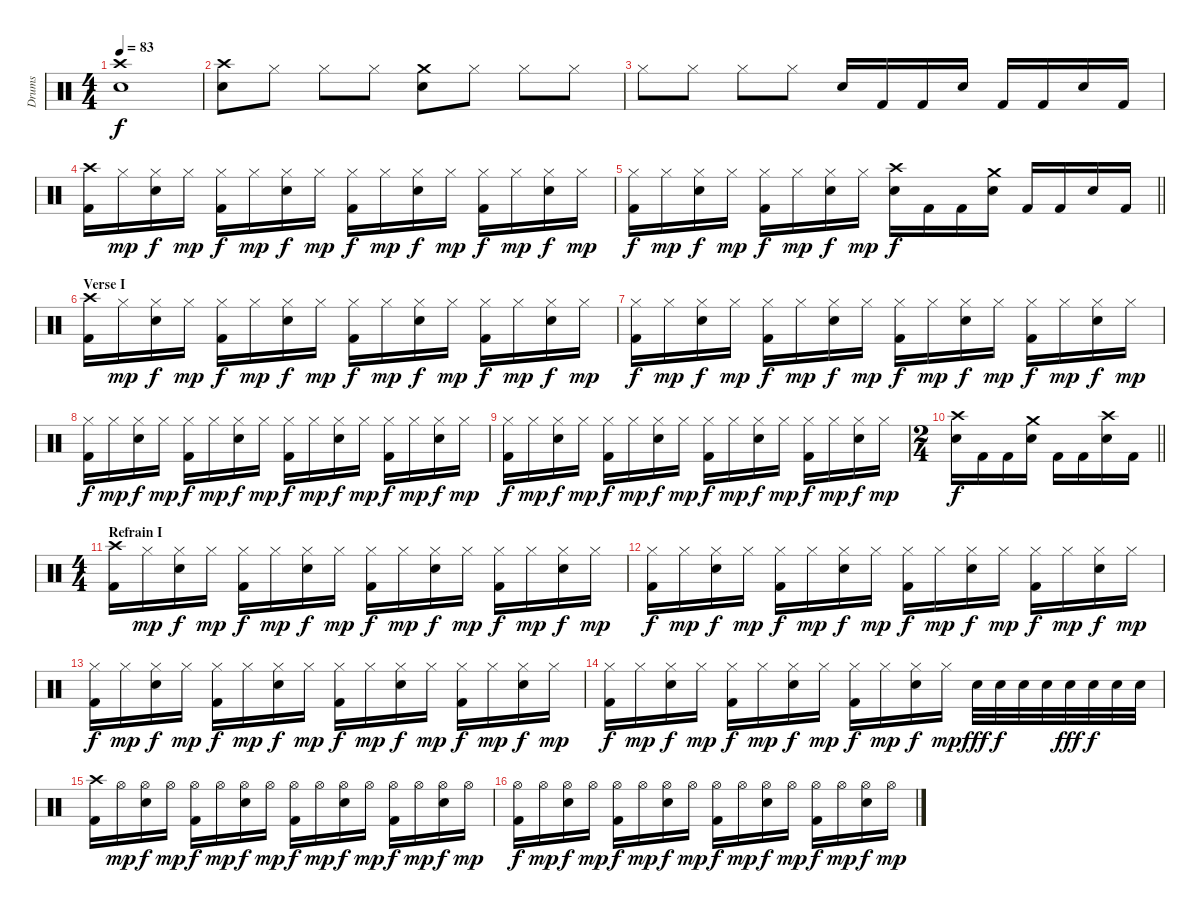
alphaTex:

\track ("Drums" "Drums") {instrument percussion}
\staff {score}
\articulation defaults
\ts (4 4)
\tempo 83
\clef neutral
\ks c
("Crash high (hit)" "Snare (hit) 2").1{dy f} |
("Crash high (hit)" "Snare (hit) 2").8 "Hi-Hat (closed)".8 "Hi-Hat (closed)".8 "Hi-Hat (closed)".8 ("Crash medium (hit)" "Snare (hit) 2").8 "Hi-Hat (closed)".8 "Hi-Hat (closed)".8 "Hi-Hat (closed)".8 |
"Hi-Hat (closed)".8 "Hi-Hat (closed)".8 "Hi-Hat (closed)".8 "Hi-Hat (closed)".8 "Snare (hit) 2".16 "Kick (hit) 2".16 "Kick (hit) 2".16 "Snare (hit) 2".16 "Kick (hit) 2".16 "Kick (hit) 2".16 "Snare (hit) 2".16 "Kick (hit) 2".16 |
("Crash high (hit)" "Kick (hit) 2").16 "Hi-Hat (closed)".16{dy mp} ("Hi-Hat (closed)" "Snare (hit) 2").16{dy f} "Hi-Hat (closed)".16{dy mp} ("Hi-Hat (closed)" "Kick (hit) 2").16{dy f} "Hi-Hat (closed)".16{dy mp} ("Hi-Hat (closed)" "Snare (hit) 2").16{dy f} "Hi-Hat (closed)".16{dy mp} ("Hi-Hat (closed)" "Kick (hit) 2").16{dy f} "Hi-Hat (closed)".16{dy mp} ("Hi-Hat (closed)" "Snare (hit) 2").16{dy f} "Hi-Hat (closed)".16{dy mp} ("Hi-Hat (closed)" "Kick (hit) 2").16{dy f} "Hi-Hat (closed)".16{dy mp} ("Hi-Hat (closed)" "Snare (hit) 2").16{dy f} "Hi-Hat (closed)".16{dy mp} |
\barLineRight lightlight
("Hi-Hat (closed)" "Kick (hit) 2").16{dy f} "Hi-Hat (closed)".16{dy mp} ("Hi-Hat (closed)" "Snare (hit) 2").16{dy f} "Hi-Hat (closed)".16{dy mp} ("Hi-Hat (closed)" "Kick (hit) 2").16{dy f} "Hi-Hat (closed)".16{dy mp} ("Hi-Hat (closed)" "Snare (hit) 2").16{dy f} "Hi-Hat (closed)".16{dy mp} ("Crash high (hit)" "Snare (hit) 2").16{dy f} "Kick (hit) 2".16 "Kick (hit) 2".16 ("Crash medium (hit)" "Snare (hit) 2").16 "Kick (hit) 2".16 "Kick (hit) 2".16 "Snare (hit) 2".16 "Kick (hit) 2".16 |
\section ("" "Verse I")
("Crash high (hit)" "Kick (hit) 2").16 "Hi-Hat (closed)".16{dy mp} ("Hi-Hat (closed)" "Snare (hit) 2").16{dy f} "Hi-Hat (closed)".16{dy mp} ("Hi-Hat (closed)" "Kick (hit) 2").16{dy f} "Hi-Hat (closed)".16{dy mp} ("Hi-Hat (closed)" "Snare (hit) 2").16{dy f} "Hi-Hat (closed)".16{dy mp} ("Hi-Hat (closed)" "Kick (hit) 2").16{dy f} "Hi-Hat (closed)".16{dy mp} ("Hi-Hat (closed)" "Snare (hit) 2").16{dy f} "Hi-Hat (closed)".16{dy mp} ("Hi-Hat (closed)" "Kick (hit) 2").16{dy f} "Hi-Hat (closed)".16{dy mp} ("Hi-Hat (closed)" "Snare (hit) 2").16{dy f} "Hi-Hat (closed)".16{dy mp} |
("Hi-Hat (closed)" "Kick (hit) 2").16{dy f} "Hi-Hat (closed)".16{dy mp} ("Hi-Hat (closed)" "Snare (hit) 2").16{dy f} "Hi-Hat (closed)".16{dy mp} ("Hi-Hat (closed)" "Kick (hit) 2").16{dy f} "Hi-Hat (closed)".16{dy mp} ("Hi-Hat (closed)" "Snare (hit) 2").16{dy f} "Hi-Hat (closed)".16{dy mp} ("Hi-Hat (closed)" "Kick (hit) 2").16{dy f} "Hi-Hat (closed)".16{dy mp} ("Hi-Hat (closed)" "Snare (hit) 2").16{dy f} "Hi-Hat (closed)".16{dy mp} ("Hi-Hat (closed)" "Kick (hit) 2").16{dy f} "Hi-Hat (closed)".16{dy mp} ("Hi-Hat (closed)" "Snare (hit) 2").16{dy f} "Hi-Hat (closed)".16{dy mp} |
("Hi-Hat (closed)" "Kick (hit) 2").16{dy f} "Hi-Hat (closed)".16{dy mp} ("Hi-Hat (closed)" "Snare (hit) 2").16{dy f} "Hi-Hat (closed)".16{dy mp} ("Hi-Hat (closed)" "Kick (hit) 2").16{dy f} "Hi-Hat (closed)".16{dy mp} ("Hi-Hat (closed)" "Snare (hit) 2").16{dy f} "Hi-Hat (closed)".16{dy mp} ("Hi-Hat (closed)" "Kick (hit) 2").16{dy f} "Hi-Hat (closed)".16{dy mp} ("Hi-Hat (closed)" "Snare (hit) 2").16{dy f} "Hi-Hat (closed)".16{dy mp} ("Hi-Hat (closed)" "Kick (hit) 2").16{dy f} "Hi-Hat (closed)".16{dy mp} ("Hi-Hat (closed)" "Snare (hit) 2").16{dy f} "Hi-Hat (closed)".16{dy mp} |
("Hi-Hat (closed)" "Kick (hit) 2").16{dy f} "Hi-Hat (closed)".16{dy mp} ("Hi-Hat (closed)" "Snare (hit) 2").16{dy f} "Hi-Hat (closed)".16{dy mp} ("Hi-Hat (closed)" "Kick (hit) 2").16{dy f} "Hi-Hat (closed)".16{dy mp} ("Hi-Hat (closed)" "Snare (hit) 2").16{dy f} "Hi-Hat (closed)".16{dy mp} ("Hi-Hat (closed)" "Kick (hit) 2").16{dy f} "Hi-Hat (closed)".16{dy mp} ("Hi-Hat (closed)" "Snare (hit) 2").16{dy f} "Hi-Hat (closed)".16{dy mp} ("Hi-Hat (closed)" "Kick (hit) 2").16{dy f} "Hi-Hat (closed)".16{dy mp} ("Hi-Hat (closed)" "Snare (hit) 2").16{dy f} "Hi-Hat (closed)".16{dy mp} |
\ts (2 4)
\barLineRight lightlight
("Crash high (hit)" "Snare (hit) 2").16{dy f} "Kick (hit) 2".16 "Kick (hit) 2".16 ("Crash medium (hit)" "Snare (hit) 2").16 "Kick (hit) 2".16 "Kick (hit) 2".16 ("Crash high (hit)" "Snare (hit) 2").16 "Kick (hit) 2".16 |
\ts (4 4)
\section ("" "Refrain I")
("Crash high (hit)" "Kick (hit) 2").16 "Hi-Hat (closed)".16{dy mp} ("Hi-Hat (closed)" "Snare (hit) 2").16{dy f} "Hi-Hat (closed)".16{dy mp} ("Hi-Hat (closed)" "Kick (hit) 2").16{dy f} "Hi-Hat (closed)".16{dy mp} ("Hi-Hat (closed)" "Snare (hit) 2").16{dy f} "Hi-Hat (closed)".16{dy mp} ("Hi-Hat (closed)" "Kick (hit) 2").16{dy f} "Hi-Hat (closed)".16{dy mp} ("Hi-Hat (closed)" "Snare (hit) 2").16{dy f} "Hi-Hat (closed)".16{dy mp} ("Hi-Hat (closed)" "Kick (hit) 2").16{dy f} "Hi-Hat (closed)".16{dy mp} ("Hi-Hat (closed)" "Snare (hit) 2").16{dy f} "Hi-Hat (closed)".16{dy mp} |
("Hi-Hat (closed)" "Kick (hit) 2").16{dy f} "Hi-Hat (closed)".16{dy mp} ("Hi-Hat (closed)" "Snare (hit) 2").16{dy f} "Hi-Hat (closed)".16{dy mp} ("Hi-Hat (closed)" "Kick (hit) 2").16{dy f} "Hi-Hat (closed)".16{dy mp} ("Hi-Hat (closed)" "Snare (hit) 2").16{dy f} "Hi-Hat (closed)".16{dy mp} ("Hi-Hat (closed)" "Kick (hit) 2").16{dy f} "Hi-Hat (closed)".16{dy mp} ("Hi-Hat (closed)" "Snare (hit) 2").16{dy f} "Hi-Hat (closed)".16{dy mp} ("Hi-Hat (closed)" "Kick (hit) 2").16{dy f} "Hi-Hat (closed)".16{dy mp} ("Hi-Hat (closed)" "Snare (hit) 2").16{dy f} "Hi-Hat (closed)".16{dy mp} |
("Hi-Hat (closed)" "Kick (hit) 2").16{dy f} "Hi-Hat (closed)".16{dy mp} ("Hi-Hat (closed)" "Snare (hit) 2").16{dy f} "Hi-Hat (closed)".16{dy mp} ("Hi-Hat (closed)" "Kick (hit) 2").16{dy f} "Hi-Hat (closed)".16{dy mp} ("Hi-Hat (closed)" "Snare (hit) 2").16{dy f} "Hi-Hat (closed)".16{dy mp} ("Hi-Hat (closed)" "Kick (hit) 2").16{dy f} "Hi-Hat (closed)".16{dy mp} ("Hi-Hat (closed)" "Snare (hit) 2").16{dy f} "Hi-Hat (closed)".16{dy mp} ("Hi-Hat (closed)" "Kick (hit) 2").16{dy f} "Hi-Hat (closed)".16{dy mp} ("Hi-Hat (closed)" "Snare (hit) 2").16{dy f} "Hi-Hat (closed)".16{dy mp} |
("Hi-Hat (closed)" "Kick (hit) 2").16{dy f} "Hi-Hat (closed)".16{dy mp} ("Hi-Hat (closed)" "Snare (hit) 2").16{dy f} "Hi-Hat (closed)".16{dy mp} ("Hi-Hat (closed)" "Kick (hit) 2").16{dy f} "Hi-Hat (closed)".16{dy mp} ("Hi-Hat (closed)" "Snare (hit) 2").16{dy f} "Hi-Hat (closed)".16{dy mp} ("Hi-Hat (closed)" "Kick (hit) 2").16{dy f} "Hi-Hat (closed)".16{dy mp} ("Hi-Hat (closed)" "Snare (hit) 2").16{dy f} "Hi-Hat (closed)".16{dy mp} "Snare (hit) 2".32{dy fff} "Snare (hit) 2".32{dy f} "Snare (hit) 2".32 "Snare (hit) 2".32 "Snare (hit) 2".32{dy fff} "Snare (hit) 2".32{dy f} "Snare (hit) 2".32 "Snare (hit) 2".32 |
("Crash high (hit)" "Kick (hit) 2").16 "Hi-Hat (open)".16{dy mp} ("Hi-Hat (open)" "Snare (hit) 2").16{dy f} "Hi-Hat (open)".16{dy mp} ("Hi-Hat (open)" "Kick (hit) 2").16{dy f} "Hi-Hat (open)".16{dy mp} ("Hi-Hat (open)" "Snare (hit) 2").16{dy f} "Hi-Hat (open)".16{dy mp} ("Hi-Hat (open)" "Kick (hit) 2").16{dy f} "Hi-Hat (open)".16{dy mp} ("Hi-Hat (open)" "Snare (hit) 2").16{dy f} "Hi-Hat (open)".16{dy mp} ("Hi-Hat (open)" "Kick (hit) 2").16{dy f} "Hi-Hat (open)".16{dy mp} ("Hi-Hat (open)" "Snare (hit) 2").16{dy f} "Hi-Hat (open)".16{dy mp} |
("Hi-Hat (open)" "Kick (hit) 2").16{dy f} "Hi-Hat (open)".16{dy mp} ("Hi-Hat (open)" "Snare (hit) 2").16{dy f} "Hi-Hat (open)".16{dy mp} ("Hi-Hat (open)" "Kick (hit) 2").16{dy f} "Hi-Hat (open)".16{dy mp} ("Hi-Hat (open)" "Snare (hit) 2").16{dy f} "Hi-Hat (open)".16{dy mp} ("Hi-Hat (open)" "Kick (hit) 2").16{dy f} "Hi-Hat (open)".16{dy mp} ("Hi-Hat (open)" "Snare (hit) 2").16{dy f} "Hi-Hat (open)".16{dy mp} ("Hi-Hat (open)" "Kick (hit) 2").16{dy f} "Hi-Hat (open)".16{dy mp} ("Hi-Hat (open)" "Snare (hit) 2").16{dy f} "Hi-Hat (open)".16{dy mp}
